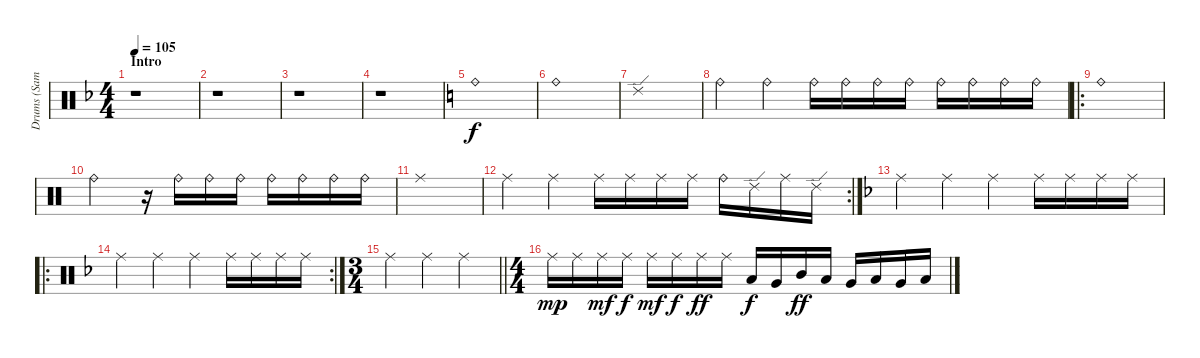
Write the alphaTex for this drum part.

\track ("Drums (Samuelson)" "Drums (Sam") {instrument percussion}
\staff {score}
\articulation defaults
\ts (4 4)
\section ("" "Intro")
\tempo 105
\clef neutral
\ks f
r.1{dy f} |
r.1 |
r.1 |
r.1 |
\ks c "Ride (bell)".1
|
"Ride (bell)".1 |
"Ride (edge) 2".1 |
"Ride (bell)".4 "Ride (bell)".4 "Ride (bell)".16 "Ride (bell)".16 "Ride (bell)".16 "Ride (bell)".16 "Ride (bell)".16 "Ride (bell)".16 "Ride (bell)".16 "Ride (bell)".16 |
\ro "Ride (bell)".1
|
"Ride (bell)".2 r.16 "Ride (bell)".16 "Ride (bell)".16 "Ride (bell)".16 "Ride (bell)".16 "Ride (bell)".16 "Ride (bell)".16 "Ride (bell)".16 |
"Ride (middle)".1 |
\rc 2 "Ride (middle)".4 "Ride (middle)".4 "Ride (middle)".16 "Ride (middle)".16 "Ride (middle)".16 "Ride (middle)".16 "Ride (bell)".16 "Ride (edge) 2".16 "Ride (middle)".16 "Ride (edge) 2".16
|
\ks f "Ride (middle)".4 "Ride (middle)".4 "Ride (middle)".4 "Ride (middle)".16 "Ride (middle)".16 "Ride (middle)".16 "Ride (middle)".16
|
\ro
\rc 2 "Ride (middle)".4 "Ride (middle)".4 "Ride (middle)".4 "Ride (middle)".16 "Ride (middle)".16 "Ride (middle)".16 "Ride (middle)".16
|
\ts (3 4)
\barLineRight lightlight "Ride (middle)".4 "Ride (middle)".4 "Ride (middle)".4
|
\ts (4 4)
"Ride (middle)".16{dy mp} "Ride (middle)".16 "Ride (middle)".16{dy mf} "Ride (middle)".16{dy f} "Ride (middle)".16{dy mf} "Ride (middle)".16{dy f} "Ride (middle)".16{dy ff} "Ride (middle)".16 "Low Tom (hit)".16{dy f} "Very Low Tom (hit)".16 "Mid Tom (hit)".16{dy ff} "Low Tom (hit)".16 "Very Low Tom (hit)".16 "Low Floor Tom (hit)".16 "Very Low Tom (hit)".16 "Low Tom (hit)".16
